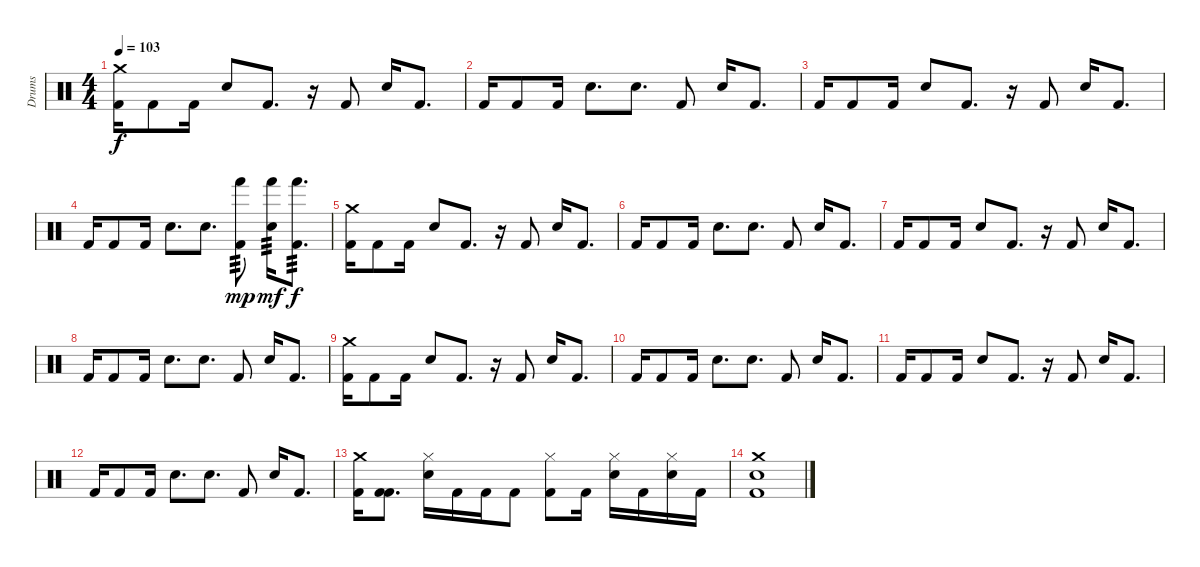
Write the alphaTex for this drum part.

\track ("Drums" "Drums") {instrument percussion}
\staff {score}
\articulation defaults
\ts (4 4)
\tempo 103
\clef neutral
\ks c
("Kick (hit) 2" "Crash medium (hit)").16{dy f} "Kick (hit) 2".8 "Kick (hit) 2".16 "Electric Snare (hit)".8 "Kick (hit) 2".8{d} r.16 "Kick (hit) 2".8 "Electric Snare (hit)".16 "Kick (hit) 2".8{d} |
"Kick (hit) 2".16 "Kick (hit) 2".8 "Kick (hit) 2".16 "Electric Snare (hit)".8{d} "Electric Snare (hit)".8{d} "Kick (hit) 2".8 "Electric Snare (hit)".16 "Kick (hit) 2".8{d} |
"Kick (hit) 2".16 "Kick (hit) 2".8 "Kick (hit) 2".16 "Electric Snare (hit)".8 "Kick (hit) 2".8{d} r.16 "Kick (hit) 2".8 "Electric Snare (hit)".16 "Kick (hit) 2".8{d} |
"Kick (hit) 2".16 "Kick (hit) 2".8 "Kick (hit) 2".16 "Electric Snare (hit)".8{d} "Electric Snare (hit)".8{d} ("Kick (hit) 2" "Hand (hit)").8{tp 3 dy mp} ("Electric Snare (hit)" "Hand (hit)").16{tp 3 dy mf} ("Kick (hit) 2" "Hand (hit)").8{d tp 3 dy f} |
("Kick (hit) 2" "Crash medium (hit)").16 "Kick (hit) 2".8 "Kick (hit) 2".16 "Electric Snare (hit)".8 "Kick (hit) 2".8{d} r.16 "Kick (hit) 2".8 "Electric Snare (hit)".16 "Kick (hit) 2".8{d} |
"Kick (hit) 2".16 "Kick (hit) 2".8 "Kick (hit) 2".16 "Electric Snare (hit)".8{d} "Electric Snare (hit)".8{d} "Kick (hit) 2".8 "Electric Snare (hit)".16 "Kick (hit) 2".8{d} |
"Kick (hit) 2".16 "Kick (hit) 2".8 "Kick (hit) 2".16 "Electric Snare (hit)".8 "Kick (hit) 2".8{d} r.16 "Kick (hit) 2".8 "Electric Snare (hit)".16 "Kick (hit) 2".8{d} |
"Kick (hit) 2".16 "Kick (hit) 2".8 "Kick (hit) 2".16 "Electric Snare (hit)".8{d} "Electric Snare (hit)".8{d} "Kick (hit) 2".8 "Electric Snare (hit)".16 "Kick (hit) 2".8{d} |
("Kick (hit) 2" "Crash medium (hit)").16 "Kick (hit) 2".8 "Kick (hit) 2".16 "Electric Snare (hit)".8 "Kick (hit) 2".8{d} r.16 "Kick (hit) 2".8 "Electric Snare (hit)".16 "Kick (hit) 2".8{d} |
"Kick (hit) 2".16 "Kick (hit) 2".8 "Kick (hit) 2".16 "Electric Snare (hit)".8{d} "Electric Snare (hit)".8{d} "Kick (hit) 2".8 "Electric Snare (hit)".16 "Kick (hit) 2".8{d} |
"Kick (hit) 2".16 "Kick (hit) 2".8 "Kick (hit) 2".16 "Electric Snare (hit)".8 "Kick (hit) 2".8{d} r.16 "Kick (hit) 2".8 "Electric Snare (hit)".16 "Kick (hit) 2".8{d} |
"Kick (hit) 2".16 "Kick (hit) 2".8 "Kick (hit) 2".16 "Electric Snare (hit)".8{d} "Electric Snare (hit)".8{d} "Kick (hit) 2".8 "Electric Snare (hit)".16 "Kick (hit) 2".8{d} |
("Crash medium (hit)" "Kick (hit) 2").16 ("Kick (hit) 2" "Kick (hit) 2").8{d} ("Hi-Hat (closed)" "Snare (hit) 2").16 "Kick (hit) 2".16 "Kick (hit) 2".16 "Kick (hit) 2".8 ("Hi-Hat (closed)" "Kick (hit) 2").8 "Kick (hit) 2".16 ("Hi-Hat (closed)" "Snare (hit) 2").16 "Kick (hit) 2".16 ("Hi-Hat (closed)" "Snare (hit) 2").16 "Kick (hit) 2".16 |
("Kick (hit) 2" "Snare (hit) 2" "Crash medium (hit)").1
